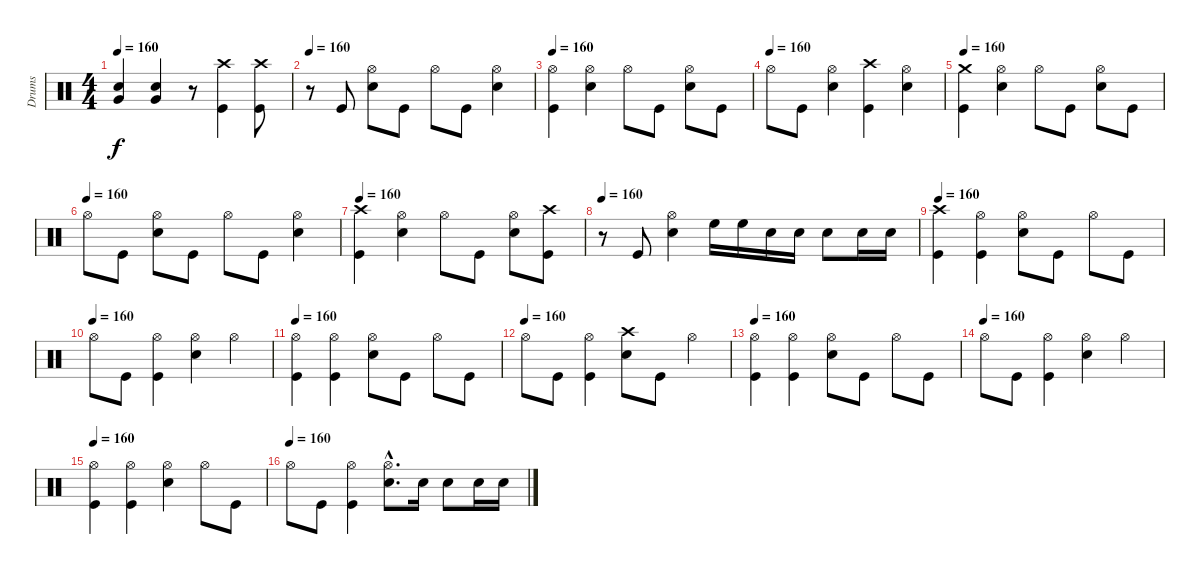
\track ("Drums" "Drums") {instrument percussion}
\staff {score}
\articulation defaults
\ts (4 4)
\tempo 160
\clef neutral
\ks c
("Very Low Tom (hit)" "Electric Snare (hit)").4{dy f} ("Very Low Tom (hit)" "Electric Snare (hit)").4 r.8 ("Crash high (hit)" "Kick (hit)").4 ("Crash high (hit)" "Kick (hit)").8 |
\tempo 160
r.8 "Kick (hit)".8 ("Hi-Hat (open)" "Electric Snare (hit)").8 "Kick (hit)".8 "Hi-Hat (open)".8 "Kick (hit)".8 ("Hi-Hat (open)" "Electric Snare (hit)").4 |
\tempo 160
("Hi-Hat (open)" "Kick (hit)").4 ("Hi-Hat (open)" "Electric Snare (hit)").4 "Hi-Hat (open)".8 "Kick (hit)".8 ("Hi-Hat (open)" "Electric Snare (hit)").8 "Kick (hit)".8 |
\tempo (160)
"Hi-Hat (open)".8 "Kick (hit)".8 ("Hi-Hat (open)" "Electric Snare (hit)").4 ("Crash high (hit)" "Kick (hit)").4 ("Hi-Hat (open)" "Electric Snare (hit)").4 |
\tempo 160
("Crash medium (hit)" "Kick (hit)").4 ("Hi-Hat (open)" "Electric Snare (hit)").4 "Hi-Hat (open)".8 "Kick (hit)".8 ("Hi-Hat (open)" "Electric Snare (hit)").8 "Kick (hit)".8 |
\tempo (160)
"Hi-Hat (open)".8 "Kick (hit)".8 ("Hi-Hat (open)" "Electric Snare (hit)").8 "Kick (hit)".8 "Hi-Hat (open)".8 "Kick (hit)".8 ("Hi-Hat (open)" "Electric Snare (hit)").4 |
\tempo 160
("Crash high (hit)" "Kick (hit)").4 ("Hi-Hat (open)" "Electric Snare (hit)").4 "Hi-Hat (open)".8 "Kick (hit)".8 ("Hi-Hat (open)" "Electric Snare (hit)").8 ("Crash high (hit)" "Kick (hit)").8 |
\tempo 160
r.8 "Kick (hit)".8 ("Hi-Hat (open)" "Electric Snare (hit)").4 "High Floor Tom (hit)".16 "High Floor Tom (hit)".16 "Electric Snare (hit)".16 "Electric Snare (hit)".16 "Electric Snare (hit)".8 "Electric Snare (hit)".16 "Electric Snare (hit)".16 |
\tempo 160
("Crash high (hit)" "Kick (hit)").4 ("Hi-Hat (open)" "Kick (hit)").4 ("Hi-Hat (open)" "Electric Snare (hit)").8 "Kick (hit)".8 "Hi-Hat (open)".8 "Kick (hit)".8 |
\tempo (160)
"Hi-Hat (open)".8 "Kick (hit)".8 ("Hi-Hat (open)" "Kick (hit)").4 ("Hi-Hat (open)" "Electric Snare (hit)").4 "Hi-Hat (open)".4 |
\tempo 160
("Hi-Hat (open)" "Kick (hit)").4 ("Hi-Hat (open)" "Kick (hit)").4 ("Hi-Hat (open)" "Electric Snare (hit)").8 "Kick (hit)".8 "Hi-Hat (open)".8 "Kick (hit)".8 |
\tempo (160)
"Hi-Hat (open)".8 "Kick (hit)".8 ("Hi-Hat (open)" "Kick (hit)").4 ("Crash high (hit)" "Electric Snare (hit)").8 "Kick (hit)".8 "Hi-Hat (open)".4 |
\tempo 160
("Hi-Hat (open)" "Kick (hit)").4 ("Hi-Hat (open)" "Kick (hit)").4 ("Hi-Hat (open)" "Electric Snare (hit)").8 "Kick (hit)".8 "Hi-Hat (open)".8 "Kick (hit)".8 |
\tempo (160)
"Hi-Hat (open)".8 "Kick (hit)".8 ("Hi-Hat (open)" "Kick (hit)").4 ("Hi-Hat (open)" "Electric Snare (hit)").4 "Hi-Hat (open)".4 |
\tempo 160
("Hi-Hat (open)" "Kick (hit)").4 ("Hi-Hat (open)" "Kick (hit)").4 ("Hi-Hat (open)" "Electric Snare (hit)").4 "Hi-Hat (open)".8 "Kick (hit)".8 |
\tempo (160)
"Hi-Hat (open)".8 "Kick (hit)".8 ("Hi-Hat (open)" "Kick (hit)").4 ("Hi-Hat (open)"{hac} "Electric Snare (hit)"{hac}).8{d} "Electric Snare (hit)".16 "Electric Snare (hit)".8 "Electric Snare (hit)".16 "Electric Snare (hit)".16
